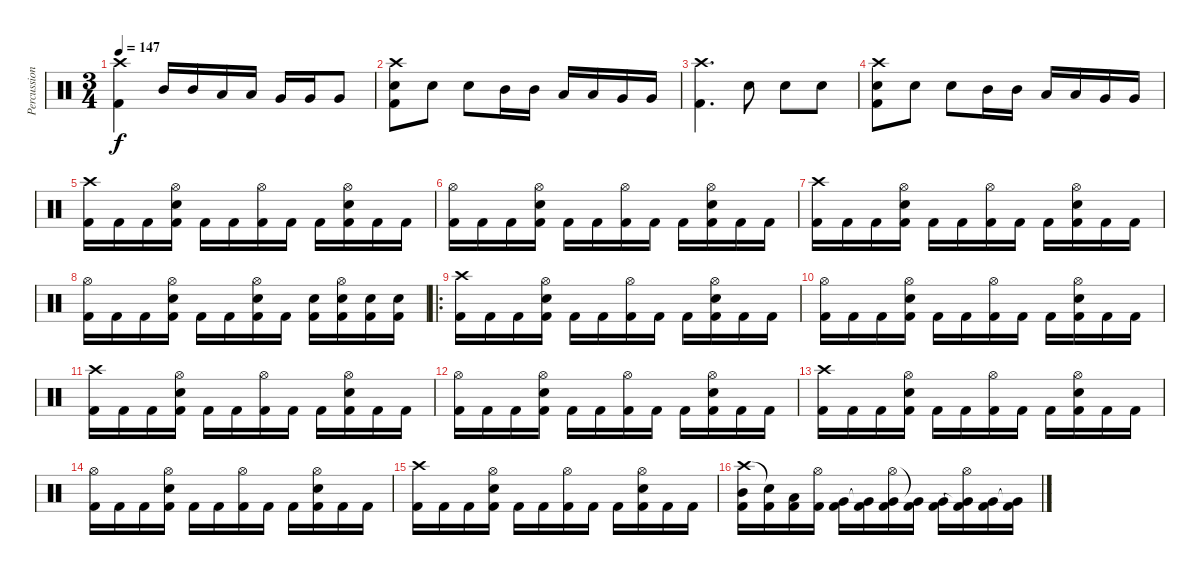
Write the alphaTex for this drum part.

\track ("Percussion" "Percussion") {instrument percussion}
\staff {score}
\articulation defaults
\ts (3 4)
\tempo 147
\clef neutral
\ks c
("Crash high (hit)" "Kick (hit) 2").4{dy f} "Mid Tom (hit)".16 "Mid Tom (hit)".16 "Low Tom (hit)".16 "Low Tom (hit)".16 "Very Low Tom (hit)".16 "Very Low Tom (hit)".16 "Very Low Tom (hit)".8 |
("Crash high (hit)" "Electric Snare (hit)" "Kick (hit) 2").8 "Electric Snare (hit)".8 "Electric Snare (hit)".8 "Mid Tom (hit)".16 "Mid Tom (hit)".16 "Low Tom (hit)".16 "Low Tom (hit)".16 "Very Low Tom (hit)".16 "Very Low Tom (hit)".16 |
("Crash high (hit)" "Kick (hit) 2").4{d} "Electric Snare (hit)".8 "Electric Snare (hit)".8 "Electric Snare (hit)".8 |
("Crash high (hit)" "Electric Snare (hit)" "Kick (hit) 2").8 "Electric Snare (hit)".8 "Electric Snare (hit)".8 "Mid Tom (hit)".16 "Mid Tom (hit)".16 "Low Tom (hit)".16 "Low Tom (hit)".16 "Very Low Tom (hit)".16 "Very Low Tom (hit)".16 |
("Crash high (hit)" "Kick (hit) 2").16 "Kick (hit) 2".16 "Kick (hit) 2".16 ("Hi-Hat (open)" "Electric Snare (hit)" "Kick (hit) 2").16 "Kick (hit) 2".16 "Kick (hit) 2".16 ("Hi-Hat (open)" "Kick (hit) 2").16 "Kick (hit) 2".16 "Kick (hit) 2".16 ("Hi-Hat (open)" "Electric Snare (hit)" "Kick (hit) 2").16 "Kick (hit) 2".16 "Kick (hit) 2".16 |
("Hi-Hat (open)" "Kick (hit) 2").16 "Kick (hit) 2".16 "Kick (hit) 2".16 ("Hi-Hat (open)" "Electric Snare (hit)" "Kick (hit) 2").16 "Kick (hit) 2".16 "Kick (hit) 2".16 ("Hi-Hat (open)" "Kick (hit) 2").16 "Kick (hit) 2".16 "Kick (hit) 2".16 ("Hi-Hat (open)" "Electric Snare (hit)" "Kick (hit) 2").16 "Kick (hit) 2".16 "Kick (hit) 2".16 |
("Crash high (hit)" "Kick (hit) 2").16 "Kick (hit) 2".16 "Kick (hit) 2".16 ("Hi-Hat (open)" "Electric Snare (hit)" "Kick (hit) 2").16 "Kick (hit) 2".16 "Kick (hit) 2".16 ("Hi-Hat (open)" "Kick (hit) 2").16 "Kick (hit) 2".16 "Kick (hit) 2".16 ("Hi-Hat (open)" "Electric Snare (hit)" "Kick (hit) 2").16 "Kick (hit) 2".16 "Kick (hit) 2".16 |
("Hi-Hat (open)" "Kick (hit) 2").16 "Kick (hit) 2".16 "Kick (hit) 2".16 ("Hi-Hat (open)" "Electric Snare (hit)" "Kick (hit) 2").16 "Kick (hit) 2".16 "Kick (hit) 2".16 ("Hi-Hat (open)" "Electric Snare (hit)" "Kick (hit) 2").16 "Kick (hit) 2".16 ("Electric Snare (hit)" "Kick (hit) 2").16 ("Hi-Hat (open)" "Electric Snare (hit)" "Kick (hit) 2").16 ("Electric Snare (hit)" "Kick (hit) 2").16 ("Electric Snare (hit)" "Kick (hit) 2").16 |
\ro
("Crash high (hit)" "Kick (hit) 2").16 "Kick (hit) 2".16 "Kick (hit) 2".16 ("Hi-Hat (open)" "Electric Snare (hit)" "Kick (hit) 2").16 "Kick (hit) 2".16 "Kick (hit) 2".16 ("Hi-Hat (open)" "Kick (hit) 2").16 "Kick (hit) 2".16 "Kick (hit) 2".16 ("Hi-Hat (open)" "Electric Snare (hit)" "Kick (hit) 2").16 "Kick (hit) 2".16 "Kick (hit) 2".16 |
("Hi-Hat (open)" "Kick (hit) 2").16 "Kick (hit) 2".16 "Kick (hit) 2".16 ("Hi-Hat (open)" "Electric Snare (hit)" "Kick (hit) 2").16 "Kick (hit) 2".16 "Kick (hit) 2".16 ("Hi-Hat (open)" "Kick (hit) 2").16 "Kick (hit) 2".16 "Kick (hit) 2".16 ("Hi-Hat (open)" "Electric Snare (hit)" "Kick (hit) 2").16 "Kick (hit) 2".16 "Kick (hit) 2".16 |
("Crash high (hit)" "Kick (hit) 2").16 "Kick (hit) 2".16 "Kick (hit) 2".16 ("Hi-Hat (open)" "Electric Snare (hit)" "Kick (hit) 2").16 "Kick (hit) 2".16 "Kick (hit) 2".16 ("Hi-Hat (open)" "Kick (hit) 2").16 "Kick (hit) 2".16 "Kick (hit) 2".16 ("Hi-Hat (open)" "Electric Snare (hit)" "Kick (hit) 2").16 "Kick (hit) 2".16 "Kick (hit) 2".16 |
("Hi-Hat (open)" "Kick (hit) 2").16 "Kick (hit) 2".16 "Kick (hit) 2".16 ("Hi-Hat (open)" "Electric Snare (hit)" "Kick (hit) 2").16 "Kick (hit) 2".16 "Kick (hit) 2".16 ("Hi-Hat (open)" "Kick (hit) 2").16 "Kick (hit) 2".16 "Kick (hit) 2".16 ("Hi-Hat (open)" "Electric Snare (hit)" "Kick (hit) 2").16 "Kick (hit) 2".16 "Kick (hit) 2".16 |
("Crash high (hit)" "Kick (hit) 2").16 "Kick (hit) 2".16 "Kick (hit) 2".16 ("Hi-Hat (open)" "Electric Snare (hit)" "Kick (hit) 2").16 "Kick (hit) 2".16 "Kick (hit) 2".16 ("Hi-Hat (open)" "Kick (hit) 2").16 "Kick (hit) 2".16 "Kick (hit) 2".16 ("Hi-Hat (open)" "Electric Snare (hit)" "Kick (hit) 2").16 "Kick (hit) 2".16 "Kick (hit) 2".16 |
("Hi-Hat (open)" "Kick (hit) 2").16 "Kick (hit) 2".16 "Kick (hit) 2".16 ("Hi-Hat (open)" "Electric Snare (hit)" "Kick (hit) 2").16 "Kick (hit) 2".16 "Kick (hit) 2".16 ("Hi-Hat (open)" "Kick (hit) 2").16 "Kick (hit) 2".16 "Kick (hit) 2".16 ("Hi-Hat (open)" "Electric Snare (hit)" "Kick (hit) 2").16 "Kick (hit) 2".16 "Kick (hit) 2".16 |
("Crash high (hit)" "Kick (hit) 2").16 "Kick (hit) 2".16 "Kick (hit) 2".16 ("Hi-Hat (open)" "Electric Snare (hit)" "Kick (hit) 2").16 "Kick (hit) 2".16 "Kick (hit) 2".16 ("Hi-Hat (open)" "Kick (hit) 2").16 "Kick (hit) 2".16 "Kick (hit) 2".16 ("Hi-Hat (open)" "Electric Snare (hit)" "Kick (hit) 2").16 "Kick (hit) 2".16 "Kick (hit) 2".16 |
("Crash high (hit)" "Mid Tom (hit)" "Kick (hit) 2").16 ("Snare (hit)"{t} "Kick (hit) 2").16 ("Low Tom (hit)" "Kick (hit) 2").16 ("Hi-Hat (open)" "Kick (hit) 2").16 ("Very Low Tom (hit)" "Kick (hit) 2").16 ("Very Low Tom (hit)"{t} "Kick (hit) 2").16 ("Hi-Hat (open)" "Very Low Tom (hit)" "Kick (hit) 2").16 ("Very Low Tom (hit)"{t} "Kick (hit) 2").16 ("Very Low Tom (hit)" "Kick (hit) 2").16 ("Hi-Hat (open)" "Very Low Tom (hit)"{t} "Kick (hit) 2").16 ("Very Low Tom (hit)" "Kick (hit) 2").16 ("Very Low Tom (hit)"{t} "Kick (hit) 2").16
